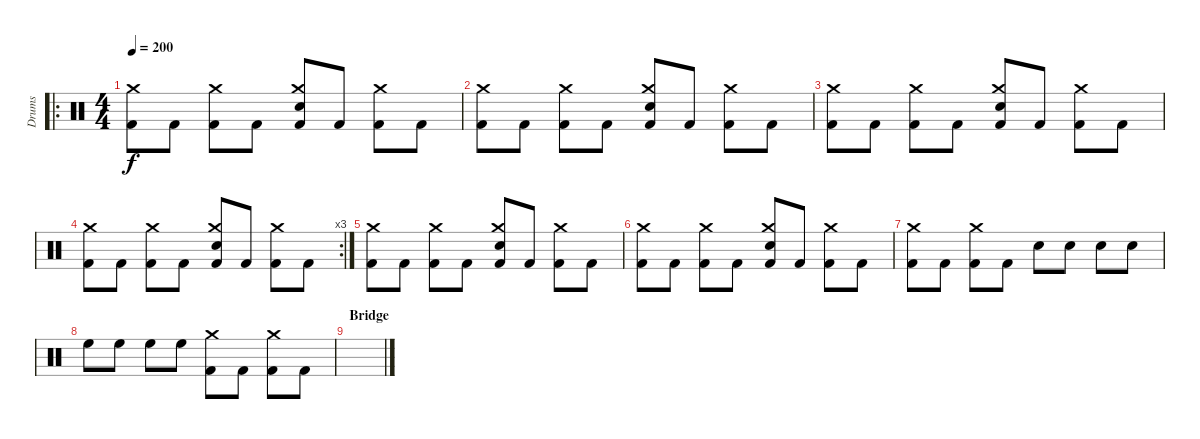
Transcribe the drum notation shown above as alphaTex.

\track ("Drums" "Drums") {instrument percussion}
\staff {score}
\articulation defaults
\ro
\ts (4 4)
\tempo 200
\clef neutral
\ks c
("Kick (hit) 2" "Crash medium (hit)").8{dy f} "Kick (hit) 2".8 ("Kick (hit) 2" "Crash medium (hit)").8 "Kick (hit) 2".8 ("Kick (hit) 2" "Crash medium (hit)" "Electric Snare (hit)").8 "Kick (hit) 2".8 ("Kick (hit) 2" "Crash medium (hit)").8 "Kick (hit) 2".8 |
("Kick (hit) 2" "Crash medium (hit)").8 "Kick (hit) 2".8 ("Kick (hit) 2" "Crash medium (hit)").8 "Kick (hit) 2".8 ("Kick (hit) 2" "Crash medium (hit)" "Electric Snare (hit)").8 "Kick (hit) 2".8 ("Kick (hit) 2" "Crash medium (hit)").8 "Kick (hit) 2".8 |
("Kick (hit) 2" "Crash medium (hit)").8 "Kick (hit) 2".8 ("Kick (hit) 2" "Crash medium (hit)").8 "Kick (hit) 2".8 ("Kick (hit) 2" "Crash medium (hit)" "Electric Snare (hit)").8 "Kick (hit) 2".8 ("Kick (hit) 2" "Crash medium (hit)").8 "Kick (hit) 2".8 |
\rc 3
("Kick (hit) 2" "Crash medium (hit)").8 "Kick (hit) 2".8 ("Kick (hit) 2" "Crash medium (hit)").8 "Kick (hit) 2".8 ("Kick (hit) 2" "Crash medium (hit)" "Electric Snare (hit)").8 "Kick (hit) 2".8 ("Kick (hit) 2" "Crash medium (hit)").8 "Kick (hit) 2".8 |
("Kick (hit) 2" "Crash medium (hit)").8 "Kick (hit) 2".8 ("Kick (hit) 2" "Crash medium (hit)").8 "Kick (hit) 2".8 ("Kick (hit) 2" "Crash medium (hit)" "Electric Snare (hit)").8 "Kick (hit) 2".8 ("Kick (hit) 2" "Crash medium (hit)").8 "Kick (hit) 2".8 |
("Kick (hit) 2" "Crash medium (hit)").8 "Kick (hit) 2".8 ("Kick (hit) 2" "Crash medium (hit)").8 "Kick (hit) 2".8 ("Kick (hit) 2" "Crash medium (hit)" "Electric Snare (hit)").8 "Kick (hit) 2".8 ("Kick (hit) 2" "Crash medium (hit)").8 "Kick (hit) 2".8 |
("Kick (hit) 2" "Crash medium (hit)").8 "Kick (hit) 2".8 ("Kick (hit) 2" "Crash medium (hit)").8 "Kick (hit) 2".8 "Electric Snare (hit)".8 "Electric Snare (hit)".8 "Electric Snare (hit)".8 "Electric Snare (hit)".8 |
"High Floor Tom (hit)".8 "High Floor Tom (hit)".8 "High Floor Tom (hit)".8 "High Floor Tom (hit)".8 ("Kick (hit) 2" "Crash medium (hit)").8 "Kick (hit) 2".8 ("Kick (hit) 2" "Crash medium (hit)").8 "Kick (hit) 2".8 |
\section ("" "Bridge")
